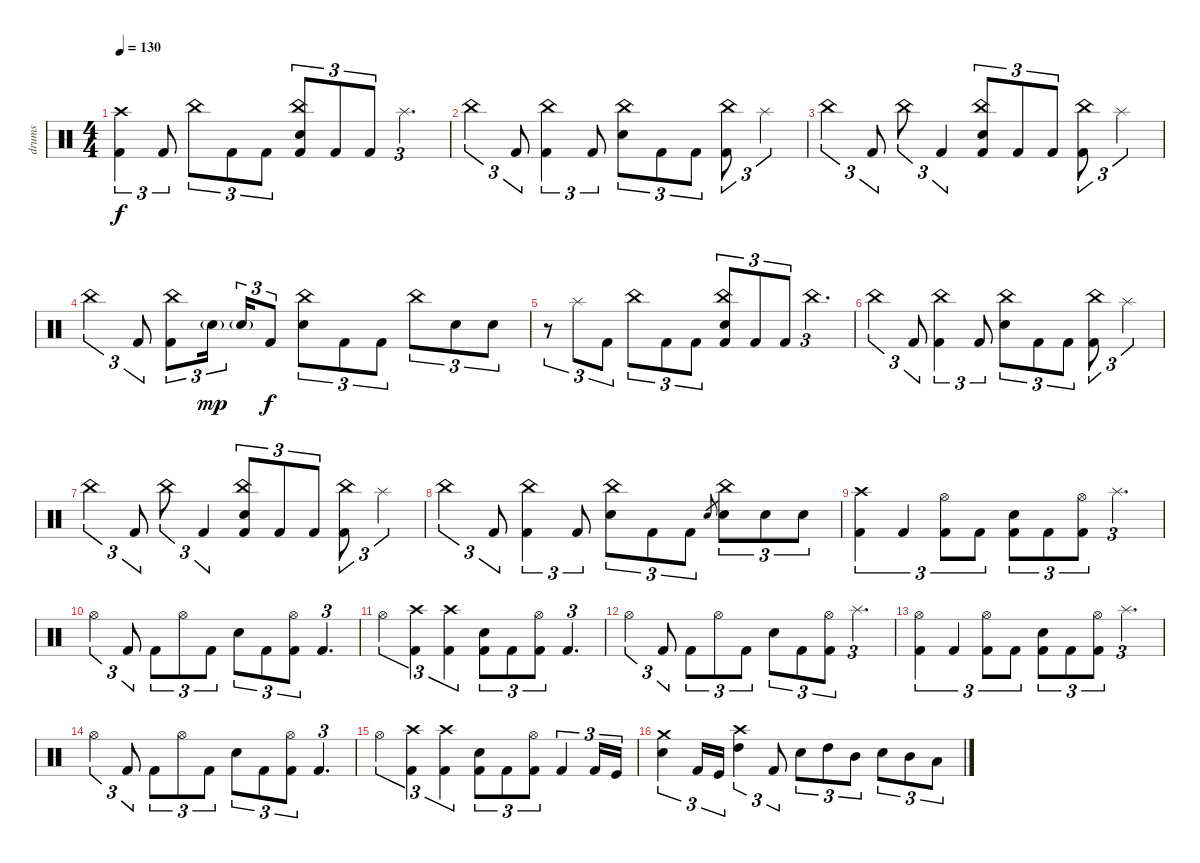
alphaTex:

\track ("drums" "drums") {instrument percussion}
\staff {score}
\articulation defaults
\ts (4 4)
\tempo 130
\clef neutral
\ks c
("Crash high (hit)" "Kick (hit) 2").4{tu (3 2) dy f} "Kick (hit) 2".8{tu (3 2)} "China (hit)".8{tu (3 2)} "Kick (hit) 2".8{tu (3 2)} "Kick (hit) 2".8{tu (3 2)} ("China (hit)" "Snare (hit) 2" "Kick (hit) 2").8{tu (3 2)} "Kick (hit) 2".8{tu (3 2)} "Kick (hit) 2".8{tu (3 2)} "Splash (hit)".4{d tu (3 2)} |
"China (hit)".4{tu (3 2)} "Kick (hit) 2".8{tu (3 2)} ("China (hit)" "Kick (hit) 2").4{tu (3 2)} "Kick (hit) 2".8{tu (3 2)} ("China (hit)" "Snare (hit) 2").8{tu (3 2)} "Kick (hit) 2".8{tu (3 2)} "Kick (hit) 2".8{tu (3 2)} ("China (hit)" "Kick (hit) 2").8{tu (3 2)} "Splash (hit)".4{tu (3 2)} |
"China (hit)".4{tu (3 2)} "Kick (hit) 2".8{tu (3 2)} "China (hit)".8{tu (3 2)} "Kick (hit) 2".4{tu (3 2)} ("China (hit)" "Snare (hit) 2" "Kick (hit) 2").8{tu (3 2)} "Kick (hit) 2".8{tu (3 2)} "Kick (hit) 2".8{tu (3 2)} ("China (hit)" "Kick (hit) 2").8{tu (3 2)} "Splash (hit)".4{tu (3 2)} |
"China (hit)".4{tu (3 2)} "Kick (hit) 2".8{tu (3 2)} ("China (hit)" "Kick (hit) 2").8{tu (3 2)} "Snare (hit) 2"{g}.16{tu (3 2) dy mp beam splitsecondary} "Snare (hit) 2"{g}.16{tu (3 2)} "Kick (hit) 2".8{tu (3 2) dy f} ("China (hit)" "Snare (hit) 2").8{tu (3 2)} "Kick (hit) 2".8{tu (3 2)} "Kick (hit) 2".8{tu (3 2)} "China (hit)".8{tu (3 2)} "Snare (hit) 2".8{tu (3 2)} "Snare (hit) 2".8{tu (3 2)} |
r.8{tu (3 2)} "Splash (hit)".8{tu (3 2)} "Kick (hit) 2".8{tu (3 2)} "China (hit)".8{tu (3 2)} "Kick (hit) 2".8{tu (3 2)} "Kick (hit) 2".8{tu (3 2)} ("China (hit)" "Snare (hit) 2" "Kick (hit) 2").8{tu (3 2)} "Kick (hit) 2".8{tu (3 2)} "Kick (hit) 2".8{tu (3 2)} "China (hit)".4{d tu (3 2)} |
"China (hit)".4{tu (3 2)} "Kick (hit) 2".8{tu (3 2)} ("China (hit)" "Kick (hit) 2").4{tu (3 2)} "Kick (hit) 2".8{tu (3 2)} ("China (hit)" "Snare (hit) 2").8{tu (3 2)} "Kick (hit) 2".8{tu (3 2)} "Kick (hit) 2".8{tu (3 2)} ("China (hit)" "Kick (hit) 2").8{tu (3 2)} "Splash (hit)".4{tu (3 2)} |
"China (hit)".4{tu (3 2)} "Kick (hit) 2".8{tu (3 2)} "China (hit)".8{tu (3 2)} "Kick (hit) 2".4{tu (3 2)} ("China (hit)" "Snare (hit) 2" "Kick (hit) 2").8{tu (3 2)} "Kick (hit) 2".8{tu (3 2)} "Kick (hit) 2".8{tu (3 2)} ("China (hit)" "Kick (hit) 2").8{tu (3 2)} "Splash (hit)".4{tu (3 2)} |
"China (hit)".4{tu (3 2)} "Kick (hit) 2".8{tu (3 2)} ("China (hit)" "Kick (hit) 2").4{tu (3 2)} "Kick (hit) 2".8{tu (3 2)} ("China (hit)" "Snare (hit) 2").8{tu (3 2)} "Kick (hit) 2".8{tu (3 2)} "Kick (hit) 2".8{tu (3 2)} "Snare (hit) 2".8{gr} ("China (hit)" "Snare (hit) 2").8{tu (3 2)} "Snare (hit) 2".8{tu (3 2)} "Snare (hit) 2".8{tu (3 2)} |
("Crash high (hit)" "Kick (hit) 2").4{tu (3 2)} "Kick (hit) 2".4{tu (3 2)} ("Hi-Hat (open)" "Kick (hit) 2").8{tu (3 2)} "Kick (hit) 2".8{tu (3 2)} ("Snare (hit) 2" "Kick (hit) 2").8{tu (3 2)} "Kick (hit) 2".8{tu (3 2)} ("Hi-Hat (open)" "Kick (hit) 2").8{tu (3 2)} "Splash (hit)".4{d tu (3 2)} |
"Hi-Hat (open)".4{tu (3 2)} "Kick (hit) 2".8{tu (3 2)} "Kick (hit) 2".8{tu (3 2)} "Hi-Hat (open)".8{tu (3 2)} "Kick (hit) 2".8{tu (3 2)} "Snare (hit) 2".8{tu (3 2)} "Kick (hit) 2".8{tu (3 2)} ("Hi-Hat (open)" "Kick (hit) 2").8{tu (3 2)} "Kick (hit) 2".4{d tu (3 2)} |
"Hi-Hat (open)".4{tu (3 2)} ("Crash high (hit)" "Kick (hit) 2").4{tu (3 2)} ("Crash high (hit)" "Kick (hit) 2").4{tu (3 2)} ("Snare (hit) 2" "Kick (hit) 2").8{tu (3 2)} "Kick (hit) 2".8{tu (3 2)} ("Hi-Hat (open)" "Kick (hit) 2").8{tu (3 2)} "Kick (hit) 2".4{d tu (3 2)} |
"Hi-Hat (open)".4{tu (3 2)} "Kick (hit) 2".8{tu (3 2)} "Kick (hit) 2".8{tu (3 2)} "Hi-Hat (open)".8{tu (3 2)} "Kick (hit) 2".8{tu (3 2)} "Snare (hit) 2".8{tu (3 2)} "Kick (hit) 2".8{tu (3 2)} ("Hi-Hat (open)" "Kick (hit) 2").8{tu (3 2)} "Splash (hit)".4{d tu (3 2)} |
("Hi-Hat (open)" "Kick (hit) 2").4{tu (3 2)} "Kick (hit) 2".4{tu (3 2)} ("Hi-Hat (open)" "Kick (hit) 2").8{tu (3 2)} "Kick (hit) 2".8{tu (3 2)} ("Snare (hit) 2" "Kick (hit) 2").8{tu (3 2)} "Kick (hit) 2".8{tu (3 2)} ("Hi-Hat (open)" "Kick (hit) 2").8{tu (3 2)} "Splash (hit)".4{d tu (3 2)} |
"Hi-Hat (open)".4{tu (3 2)} "Kick (hit) 2".8{tu (3 2)} "Kick (hit) 2".8{tu (3 2)} "Hi-Hat (open)".8{tu (3 2)} "Kick (hit) 2".8{tu (3 2)} "Snare (hit) 2".8{tu (3 2)} "Kick (hit) 2".8{tu (3 2)} ("Hi-Hat (open)" "Kick (hit) 2").8{tu (3 2)} "Kick (hit) 2".4{d tu (3 2)} |
"Hi-Hat (open)".4{tu (3 2)} ("Crash high (hit)" "Kick (hit) 2").4{tu (3 2)} ("Crash high (hit)" "Kick (hit) 2").4{tu (3 2)} ("Snare (hit) 2" "Kick (hit) 2").8{tu (3 2)} "Kick (hit) 2".8{tu (3 2)} ("Hi-Hat (open)" "Kick (hit) 2").8{tu (3 2)} "Kick (hit) 2".4{tu (3 2)} "Kick (hit) 2".16{tu (3 2)} "Kick (hit)".16{tu (3 2)} |
("Crash medium (hit)" "Snare (hit) 2").4{tu (3 2)} "Kick (hit) 2".16{tu (3 2)} "Kick (hit)".16{tu (3 2)} ("Crash high (hit)" "High Tom (hit)").4{tu (3 2)} "Kick (hit) 2".8{tu (3 2)} "Snare (hit) 2".8{tu (3 2)} "High Tom (hit)".8{tu (3 2)} "Mid Tom (hit)".8{tu (3 2)} "Snare (hit) 2".8{tu (3 2)} "Mid Tom (hit)".8{tu (3 2)} "Low Tom (hit)".8{tu (3 2)}
